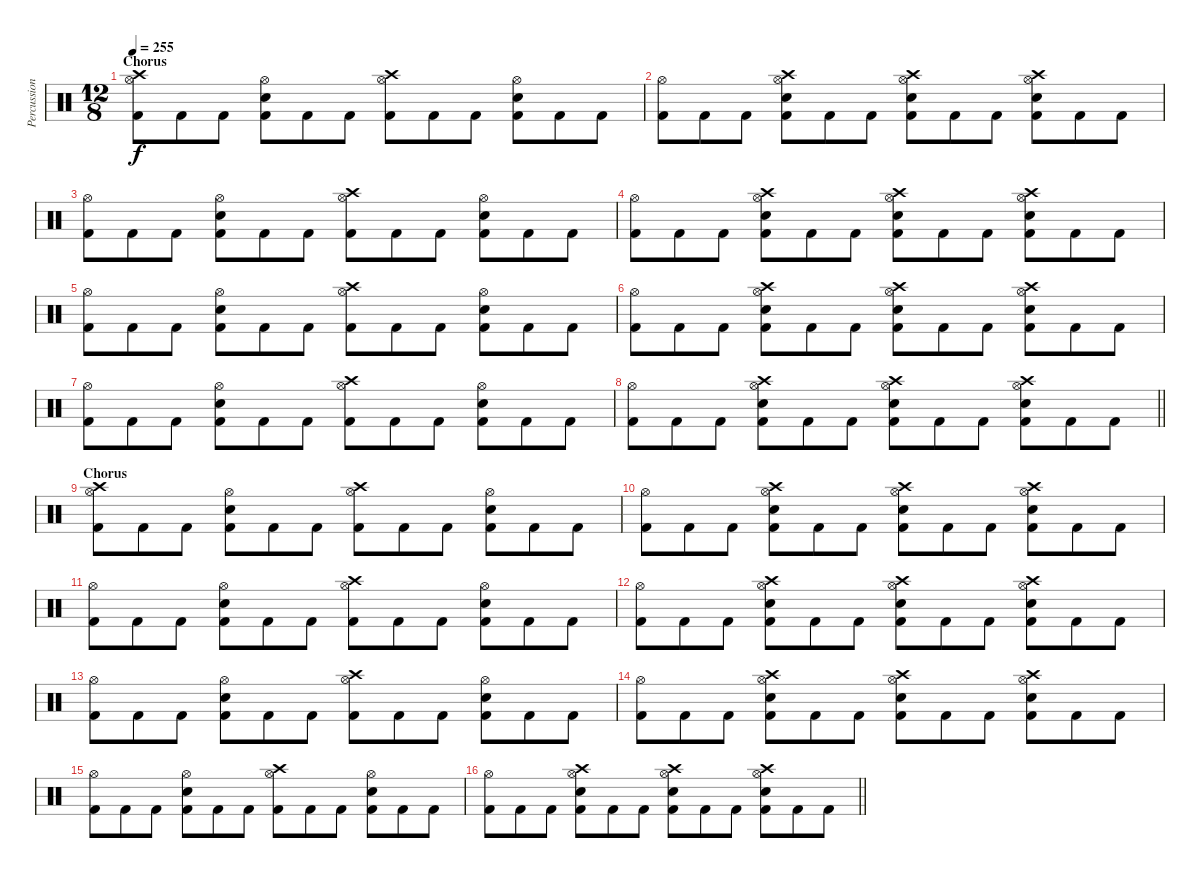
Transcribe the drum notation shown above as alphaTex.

\track ("Percussion" "Percussion") {instrument percussion}
\staff {score}
\articulation defaults
\ts (12 8)
\section ("" "Chorus")
\tempo 255
\clef neutral
\ks c
("Crash high (hit)" "Hi-Hat (open)" "Kick (hit) 2").8{dy f} "Kick (hit) 2".8 "Kick (hit) 2".8 ("Hi-Hat (open)" "Snare (hit) 2" "Kick (hit) 2").8 "Kick (hit) 2".8 "Kick (hit) 2".8 ("Crash high (hit)" "Hi-Hat (open)" "Kick (hit) 2").8 "Kick (hit) 2".8 "Kick (hit) 2".8 ("Hi-Hat (open)" "Snare (hit) 2" "Kick (hit) 2").8 "Kick (hit) 2".8 "Kick (hit) 2".8 |
("Hi-Hat (open)" "Kick (hit) 2").8 "Kick (hit) 2".8 "Kick (hit) 2".8 ("Crash high (hit)" "Hi-Hat (open)" "Snare (hit) 2" "Kick (hit) 2").8 "Kick (hit) 2".8 "Kick (hit) 2".8 ("Crash high (hit)" "Hi-Hat (open)" "Snare (hit) 2" "Kick (hit) 2").8 "Kick (hit) 2".8 "Kick (hit) 2".8 ("Crash high (hit)" "Hi-Hat (open)" "Snare (hit) 2" "Kick (hit) 2").8 "Kick (hit) 2".8 "Kick (hit) 2".8 |
("Hi-Hat (open)" "Kick (hit) 2").8 "Kick (hit) 2".8 "Kick (hit) 2".8 ("Hi-Hat (open)" "Snare (hit) 2" "Kick (hit) 2").8 "Kick (hit) 2".8 "Kick (hit) 2".8 ("Crash high (hit)" "Hi-Hat (open)" "Kick (hit) 2").8 "Kick (hit) 2".8 "Kick (hit) 2".8 ("Hi-Hat (open)" "Snare (hit) 2" "Kick (hit) 2").8 "Kick (hit) 2".8 "Kick (hit) 2".8 |
("Hi-Hat (open)" "Kick (hit) 2").8 "Kick (hit) 2".8 "Kick (hit) 2".8 ("Crash high (hit)" "Hi-Hat (open)" "Snare (hit) 2" "Kick (hit) 2").8 "Kick (hit) 2".8 "Kick (hit) 2".8 ("Crash high (hit)" "Hi-Hat (open)" "Snare (hit) 2" "Kick (hit) 2").8 "Kick (hit) 2".8 "Kick (hit) 2".8 ("Crash high (hit)" "Hi-Hat (open)" "Snare (hit) 2" "Kick (hit) 2").8 "Kick (hit) 2".8 "Kick (hit) 2".8 |
("Hi-Hat (open)" "Kick (hit) 2").8 "Kick (hit) 2".8 "Kick (hit) 2".8 ("Hi-Hat (open)" "Snare (hit) 2" "Kick (hit) 2").8 "Kick (hit) 2".8 "Kick (hit) 2".8 ("Crash high (hit)" "Hi-Hat (open)" "Kick (hit) 2").8 "Kick (hit) 2".8 "Kick (hit) 2".8 ("Hi-Hat (open)" "Snare (hit) 2" "Kick (hit) 2").8 "Kick (hit) 2".8 "Kick (hit) 2".8 |
("Hi-Hat (open)" "Kick (hit) 2").8 "Kick (hit) 2".8 "Kick (hit) 2".8 ("Crash high (hit)" "Hi-Hat (open)" "Snare (hit) 2" "Kick (hit) 2").8 "Kick (hit) 2".8 "Kick (hit) 2".8 ("Crash high (hit)" "Hi-Hat (open)" "Snare (hit) 2" "Kick (hit) 2").8 "Kick (hit) 2".8 "Kick (hit) 2".8 ("Crash high (hit)" "Hi-Hat (open)" "Snare (hit) 2" "Kick (hit) 2").8 "Kick (hit) 2".8 "Kick (hit) 2".8 |
("Hi-Hat (open)" "Kick (hit) 2").8 "Kick (hit) 2".8 "Kick (hit) 2".8 ("Hi-Hat (open)" "Snare (hit) 2" "Kick (hit) 2").8 "Kick (hit) 2".8 "Kick (hit) 2".8 ("Crash high (hit)" "Hi-Hat (open)" "Kick (hit) 2").8 "Kick (hit) 2".8 "Kick (hit) 2".8 ("Hi-Hat (open)" "Snare (hit) 2" "Kick (hit) 2").8 "Kick (hit) 2".8 "Kick (hit) 2".8 |
\barLineRight lightlight
("Hi-Hat (open)" "Kick (hit) 2").8 "Kick (hit) 2".8 "Kick (hit) 2".8 ("Crash high (hit)" "Hi-Hat (open)" "Snare (hit) 2" "Kick (hit) 2").8 "Kick (hit) 2".8 "Kick (hit) 2".8 ("Crash high (hit)" "Hi-Hat (open)" "Snare (hit) 2" "Kick (hit) 2").8 "Kick (hit) 2".8 "Kick (hit) 2".8 ("Crash high (hit)" "Hi-Hat (open)" "Snare (hit) 2" "Kick (hit) 2").8 "Kick (hit) 2".8 "Kick (hit) 2".8 |
\section ("" "Chorus")
("Crash high (hit)" "Hi-Hat (open)" "Kick (hit) 2").8 "Kick (hit) 2".8 "Kick (hit) 2".8 ("Hi-Hat (open)" "Snare (hit) 2" "Kick (hit) 2").8 "Kick (hit) 2".8 "Kick (hit) 2".8 ("Crash high (hit)" "Hi-Hat (open)" "Kick (hit) 2").8 "Kick (hit) 2".8 "Kick (hit) 2".8 ("Hi-Hat (open)" "Snare (hit) 2" "Kick (hit) 2").8 "Kick (hit) 2".8 "Kick (hit) 2".8 |
("Hi-Hat (open)" "Kick (hit) 2").8 "Kick (hit) 2".8 "Kick (hit) 2".8 ("Crash high (hit)" "Hi-Hat (open)" "Snare (hit) 2" "Kick (hit) 2").8 "Kick (hit) 2".8 "Kick (hit) 2".8 ("Crash high (hit)" "Hi-Hat (open)" "Snare (hit) 2" "Kick (hit) 2").8 "Kick (hit) 2".8 "Kick (hit) 2".8 ("Crash high (hit)" "Hi-Hat (open)" "Snare (hit) 2" "Kick (hit) 2").8 "Kick (hit) 2".8 "Kick (hit) 2".8 |
("Hi-Hat (open)" "Kick (hit) 2").8 "Kick (hit) 2".8 "Kick (hit) 2".8 ("Hi-Hat (open)" "Snare (hit) 2" "Kick (hit) 2").8 "Kick (hit) 2".8 "Kick (hit) 2".8 ("Crash high (hit)" "Hi-Hat (open)" "Kick (hit) 2").8 "Kick (hit) 2".8 "Kick (hit) 2".8 ("Hi-Hat (open)" "Snare (hit) 2" "Kick (hit) 2").8 "Kick (hit) 2".8 "Kick (hit) 2".8 |
("Hi-Hat (open)" "Kick (hit) 2").8 "Kick (hit) 2".8 "Kick (hit) 2".8 ("Crash high (hit)" "Hi-Hat (open)" "Snare (hit) 2" "Kick (hit) 2").8 "Kick (hit) 2".8 "Kick (hit) 2".8 ("Crash high (hit)" "Hi-Hat (open)" "Snare (hit) 2" "Kick (hit) 2").8 "Kick (hit) 2".8 "Kick (hit) 2".8 ("Crash high (hit)" "Hi-Hat (open)" "Snare (hit) 2" "Kick (hit) 2").8 "Kick (hit) 2".8 "Kick (hit) 2".8 |
("Hi-Hat (open)" "Kick (hit) 2").8 "Kick (hit) 2".8 "Kick (hit) 2".8 ("Hi-Hat (open)" "Snare (hit) 2" "Kick (hit) 2").8 "Kick (hit) 2".8 "Kick (hit) 2".8 ("Crash high (hit)" "Hi-Hat (open)" "Kick (hit) 2").8 "Kick (hit) 2".8 "Kick (hit) 2".8 ("Hi-Hat (open)" "Snare (hit) 2" "Kick (hit) 2").8 "Kick (hit) 2".8 "Kick (hit) 2".8 |
("Hi-Hat (open)" "Kick (hit) 2").8 "Kick (hit) 2".8 "Kick (hit) 2".8 ("Crash high (hit)" "Hi-Hat (open)" "Snare (hit) 2" "Kick (hit) 2").8 "Kick (hit) 2".8 "Kick (hit) 2".8 ("Crash high (hit)" "Hi-Hat (open)" "Snare (hit) 2" "Kick (hit) 2").8 "Kick (hit) 2".8 "Kick (hit) 2".8 ("Crash high (hit)" "Hi-Hat (open)" "Snare (hit) 2" "Kick (hit) 2").8 "Kick (hit) 2".8 "Kick (hit) 2".8 |
("Hi-Hat (open)" "Kick (hit) 2").8 "Kick (hit) 2".8 "Kick (hit) 2".8 ("Hi-Hat (open)" "Snare (hit) 2" "Kick (hit) 2").8 "Kick (hit) 2".8 "Kick (hit) 2".8 ("Crash high (hit)" "Hi-Hat (open)" "Kick (hit) 2").8 "Kick (hit) 2".8 "Kick (hit) 2".8 ("Hi-Hat (open)" "Snare (hit) 2" "Kick (hit) 2").8 "Kick (hit) 2".8 "Kick (hit) 2".8 |
\barLineRight lightlight
("Hi-Hat (open)" "Kick (hit) 2").8 "Kick (hit) 2".8 "Kick (hit) 2".8 ("Crash high (hit)" "Hi-Hat (open)" "Snare (hit) 2" "Kick (hit) 2").8 "Kick (hit) 2".8 "Kick (hit) 2".8 ("Crash high (hit)" "Hi-Hat (open)" "Snare (hit) 2" "Kick (hit) 2").8 "Kick (hit) 2".8 "Kick (hit) 2".8 ("Crash high (hit)" "Hi-Hat (open)" "Snare (hit) 2" "Kick (hit) 2").8 "Kick (hit) 2".8 "Kick (hit) 2".8
